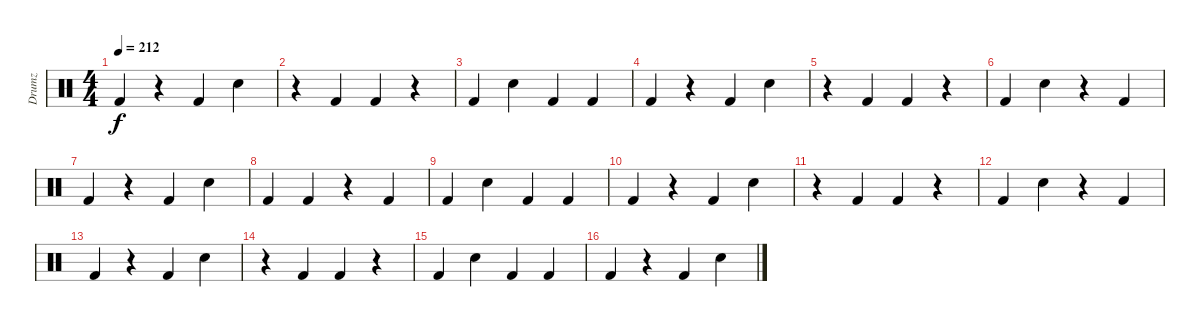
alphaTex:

\track ("Drumz" "Drumz") {instrument percussion}
\staff {score}
\articulation defaults
\ts (4 4)
\tempo 212
\clef neutral
\ks c "Kick (hit) 2".4{dy f}
r.4 "Kick (hit) 2".4 "Snare (hit) 2".4 |
r.4 "Kick (hit) 2".4 "Kick (hit) 2".4 r.4 |
"Kick (hit) 2".4 "Snare (hit) 2".4 "Kick (hit) 2".4 "Kick (hit) 2".4 |
"Kick (hit) 2".4 r.4 "Kick (hit) 2".4 "Snare (hit) 2".4 |
r.4 "Kick (hit) 2".4 "Kick (hit) 2".4 r.4 |
"Kick (hit) 2".4 "Snare (hit) 2".4 r.4 "Kick (hit) 2".4 |
"Kick (hit) 2".4 r.4 "Kick (hit) 2".4 "Snare (hit) 2".4 |
"Kick (hit) 2".4 "Kick (hit) 2".4 r.4 "Kick (hit) 2".4 |
"Kick (hit) 2".4 "Snare (hit) 2".4 "Kick (hit) 2".4 "Kick (hit) 2".4 |
"Kick (hit) 2".4 r.4 "Kick (hit) 2".4 "Snare (hit) 2".4 |
r.4 "Kick (hit) 2".4 "Kick (hit) 2".4 r.4 |
"Kick (hit) 2".4 "Snare (hit) 2".4 r.4 "Kick (hit) 2".4 |
"Kick (hit) 2".4 r.4 "Kick (hit) 2".4 "Snare (hit) 2".4 |
r.4 "Kick (hit) 2".4 "Kick (hit) 2".4 r.4 |
"Kick (hit) 2".4 "Snare (hit) 2".4 "Kick (hit) 2".4 "Kick (hit) 2".4 |
"Kick (hit) 2".4 r.4 "Kick (hit) 2".4 "Snare (hit) 2".4
